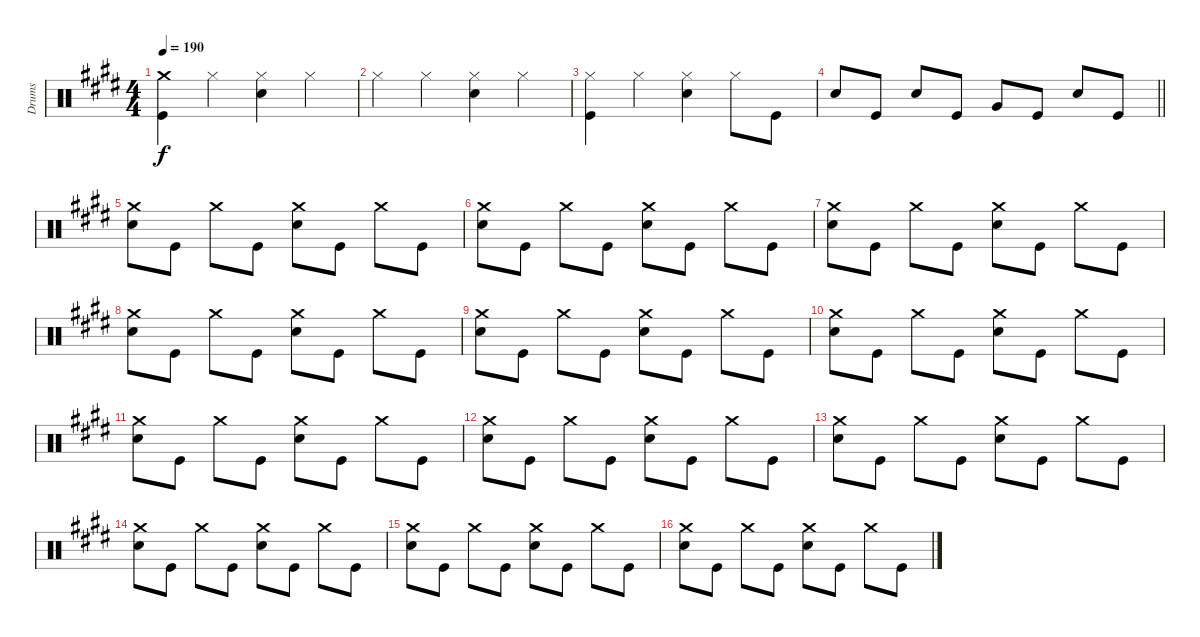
\track ("Drums" "Drums") {instrument percussion}
\staff {score}
\articulation defaults
\ts (4 4)
\tempo 190
\clef neutral
\ks e
("Kick (hit)" "Crash medium (hit)").4{dy f} "Hi-Hat (closed)".4 ("Snare (hit) 2" "Hi-Hat (closed)").4 "Hi-Hat (closed)".4 |
"Hi-Hat (closed)".4 "Hi-Hat (closed)".4 ("Hi-Hat (closed)" "Snare (hit) 2").4 "Hi-Hat (closed)".4 |
("Hi-Hat (closed)" "Kick (hit)").4 "Hi-Hat (closed)".4 ("Hi-Hat (closed)" "Snare (hit) 2").4 "Hi-Hat (closed)".8 "Kick (hit)".8 |
\barLineRight lightlight "Snare (hit) 2".8 "Kick (hit)".8 "Snare (hit) 2".8 "Kick (hit)".8 "Very Low Tom (hit)".8 "Kick (hit)".8 "Snare (hit) 2".8 "Kick (hit)".8
|
("Snare (hit) 2" "Crash medium (hit)").8 "Kick (hit)".8 "Crash medium (hit)".8 "Kick (hit)".8 ("Snare (hit) 2" "Crash medium (hit)").8 "Kick (hit)".8 "Crash medium (hit)".8 "Kick (hit)".8 |
("Snare (hit) 2" "Crash medium (hit)").8 "Kick (hit)".8 "Crash medium (hit)".8 "Kick (hit)".8 ("Snare (hit) 2" "Crash medium (hit)").8 "Kick (hit)".8 "Crash medium (hit)".8 "Kick (hit)".8 |
("Snare (hit) 2" "Crash medium (hit)").8 "Kick (hit)".8 "Crash medium (hit)".8 "Kick (hit)".8 ("Snare (hit) 2" "Crash medium (hit)").8 "Kick (hit)".8 "Crash medium (hit)".8 "Kick (hit)".8 |
("Snare (hit) 2" "Crash medium (hit)").8 "Kick (hit)".8 "Crash medium (hit)".8 "Kick (hit)".8 ("Snare (hit) 2" "Crash medium (hit)").8 "Kick (hit)".8 "Crash medium (hit)".8 "Kick (hit)".8 |
("Snare (hit) 2" "Crash medium (hit)").8 "Kick (hit)".8 "Crash medium (hit)".8 "Kick (hit)".8 ("Snare (hit) 2" "Crash medium (hit)").8 "Kick (hit)".8 "Crash medium (hit)".8 "Kick (hit)".8 |
("Snare (hit) 2" "Crash medium (hit)").8 "Kick (hit)".8 "Crash medium (hit)".8 "Kick (hit)".8 ("Snare (hit) 2" "Crash medium (hit)").8 "Kick (hit)".8 "Crash medium (hit)".8 "Kick (hit)".8 |
("Snare (hit) 2" "Crash medium (hit)").8 "Kick (hit)".8 "Crash medium (hit)".8 "Kick (hit)".8 ("Snare (hit) 2" "Crash medium (hit)").8 "Kick (hit)".8 "Crash medium (hit)".8 "Kick (hit)".8 |
("Snare (hit) 2" "Crash medium (hit)").8 "Kick (hit)".8 "Crash medium (hit)".8 "Kick (hit)".8 ("Snare (hit) 2" "Crash medium (hit)").8 "Kick (hit)".8 "Crash medium (hit)".8 "Kick (hit)".8 |
("Snare (hit) 2" "Crash medium (hit)").8 "Kick (hit)".8 "Crash medium (hit)".8 "Kick (hit)".8 ("Snare (hit) 2" "Crash medium (hit)").8 "Kick (hit)".8 "Crash medium (hit)".8 "Kick (hit)".8 |
("Snare (hit) 2" "Crash medium (hit)").8 "Kick (hit)".8 "Crash medium (hit)".8 "Kick (hit)".8 ("Snare (hit) 2" "Crash medium (hit)").8 "Kick (hit)".8 "Crash medium (hit)".8 "Kick (hit)".8 |
("Snare (hit) 2" "Crash medium (hit)").8 "Kick (hit)".8 "Crash medium (hit)".8 "Kick (hit)".8 ("Snare (hit) 2" "Crash medium (hit)").8 "Kick (hit)".8 "Crash medium (hit)".8 "Kick (hit)".8 |
("Snare (hit) 2" "Crash medium (hit)").8 "Kick (hit)".8 "Crash medium (hit)".8 "Kick (hit)".8 ("Snare (hit) 2" "Crash medium (hit)").8 "Kick (hit)".8 "Crash medium (hit)".8 "Kick (hit)".8
